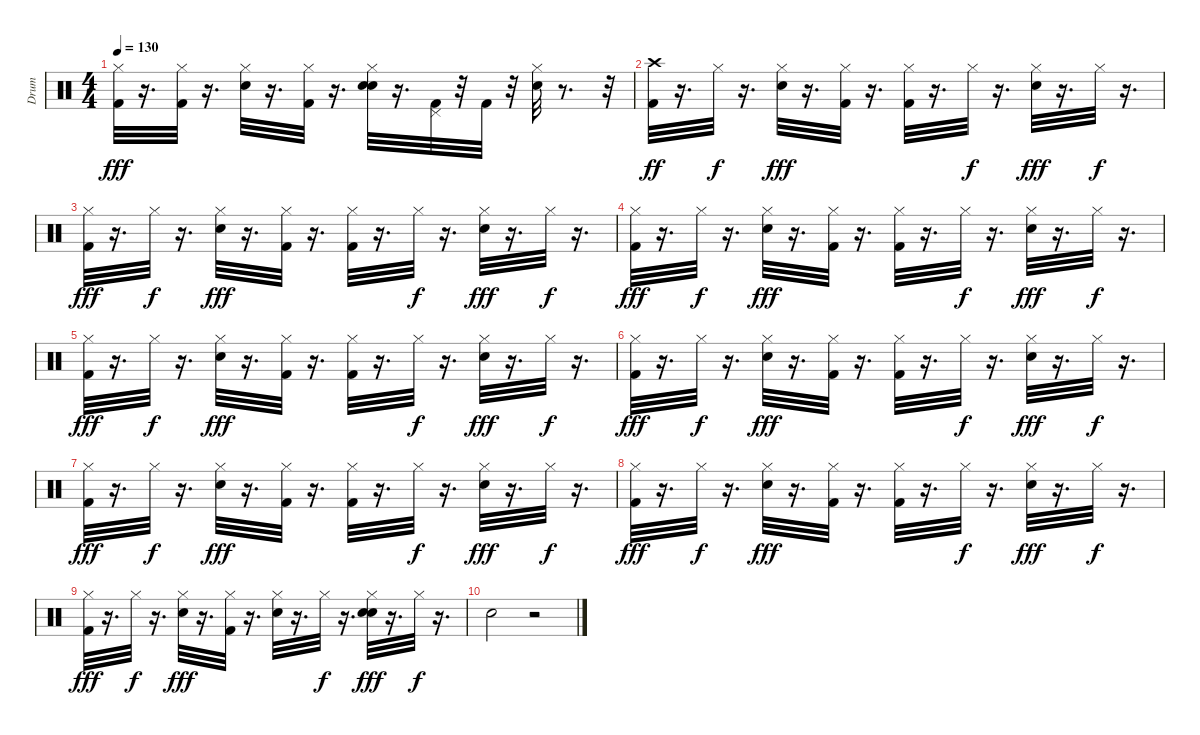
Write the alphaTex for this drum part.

\track ("Drum" "Drum") {instrument percussion}
\staff {score}
\articulation defaults
\ts (4 4)
\tempo 130
\clef neutral
\ks c
("Kick (hit) 2" "Hi-Hat (closed)").32{dy fff} r.16{d} ("Hi-Hat (closed)" "Kick (hit) 2").32 r.16{d} ("Hi-Hat (closed)" "Electric Snare (hit)").32 r.16{d} ("Kick (hit) 2" "Hi-Hat (closed)").32 r.16{d} ("Electric Snare (hit)" "Hi-Hat (closed)" "Electric Snare (hit)").32 r.16{d} ("Pedal Hi-Hat (hit)" "Kick (hit) 2").32 r.32 "Kick (hit) 2".32 r.32 ("Electric Snare (hit)" "Hi-Hat (closed)").32 r.8{d} r.32 |
("Kick (hit) 2" "Crash high (hit)").32{dy ff} r.16{d} "Hi-Hat (closed)".32{dy f} r.16{d} ("Hi-Hat (closed)" "Electric Snare (hit)").32{dy fff} r.16{d} ("Kick (hit) 2" "Hi-Hat (closed)").32 r.16{d} ("Kick (hit) 2" "Hi-Hat (closed)").32 r.16{d} "Hi-Hat (closed)".32{dy f} r.16{d} ("Hi-Hat (closed)" "Electric Snare (hit)").32{dy fff} r.16{d} "Hi-Hat (closed)".32{dy f} r.16{d} |
("Kick (hit) 2" "Hi-Hat (closed)").32{dy fff} r.16{d} "Hi-Hat (closed)".32{dy f} r.16{d} ("Hi-Hat (closed)" "Electric Snare (hit)").32{dy fff} r.16{d} ("Kick (hit) 2" "Hi-Hat (closed)").32 r.16{d} ("Kick (hit) 2" "Hi-Hat (closed)").32 r.16{d} "Hi-Hat (closed)".32{dy f} r.16{d} ("Hi-Hat (closed)" "Electric Snare (hit)").32{dy fff} r.16{d} "Hi-Hat (closed)".32{dy f} r.16{d} |
("Kick (hit) 2" "Hi-Hat (closed)").32{dy fff} r.16{d} "Hi-Hat (closed)".32{dy f} r.16{d} ("Hi-Hat (closed)" "Electric Snare (hit)").32{dy fff} r.16{d} ("Kick (hit) 2" "Hi-Hat (closed)").32 r.16{d} ("Kick (hit) 2" "Hi-Hat (closed)").32 r.16{d} "Hi-Hat (closed)".32{dy f} r.16{d} ("Hi-Hat (closed)" "Electric Snare (hit)").32{dy fff} r.16{d} "Hi-Hat (closed)".32{dy f} r.16{d} |
("Kick (hit) 2" "Hi-Hat (closed)").32{dy fff} r.16{d} "Hi-Hat (closed)".32{dy f} r.16{d} ("Hi-Hat (closed)" "Electric Snare (hit)").32{dy fff} r.16{d} ("Kick (hit) 2" "Hi-Hat (closed)").32 r.16{d} ("Kick (hit) 2" "Hi-Hat (closed)").32 r.16{d} "Hi-Hat (closed)".32{dy f} r.16{d} ("Hi-Hat (closed)" "Electric Snare (hit)").32{dy fff} r.16{d} "Hi-Hat (closed)".32{dy f} r.16{d} |
("Kick (hit) 2" "Hi-Hat (closed)").32{dy fff} r.16{d} "Hi-Hat (closed)".32{dy f} r.16{d} ("Hi-Hat (closed)" "Electric Snare (hit)").32{dy fff} r.16{d} ("Kick (hit) 2" "Hi-Hat (closed)").32 r.16{d} ("Kick (hit) 2" "Hi-Hat (closed)").32 r.16{d} "Hi-Hat (closed)".32{dy f} r.16{d} ("Hi-Hat (closed)" "Electric Snare (hit)").32{dy fff} r.16{d} "Hi-Hat (closed)".32{dy f} r.16{d} |
("Kick (hit) 2" "Hi-Hat (closed)").32{dy fff} r.16{d} "Hi-Hat (closed)".32{dy f} r.16{d} ("Hi-Hat (closed)" "Electric Snare (hit)").32{dy fff} r.16{d} ("Kick (hit) 2" "Hi-Hat (closed)").32 r.16{d} ("Kick (hit) 2" "Hi-Hat (closed)").32 r.16{d} "Hi-Hat (closed)".32{dy f} r.16{d} ("Hi-Hat (closed)" "Electric Snare (hit)").32{dy fff} r.16{d} "Hi-Hat (closed)".32{dy f} r.16{d} |
("Kick (hit) 2" "Hi-Hat (closed)").32{dy fff} r.16{d} "Hi-Hat (closed)".32{dy f} r.16{d} ("Hi-Hat (closed)" "Electric Snare (hit)").32{dy fff} r.16{d} ("Kick (hit) 2" "Hi-Hat (closed)").32 r.16{d} ("Kick (hit) 2" "Hi-Hat (closed)").32 r.16{d} "Hi-Hat (closed)".32{dy f} r.16{d} ("Hi-Hat (closed)" "Electric Snare (hit)").32{dy fff} r.16{d} "Hi-Hat (closed)".32{dy f} r.16{d} |
("Kick (hit) 2" "Hi-Hat (closed)").32{dy fff} r.16{d} "Hi-Hat (closed)".32{dy f} r.16{d} ("Hi-Hat (closed)" "Electric Snare (hit)").32{dy fff} r.16{d} ("Kick (hit) 2" "Hi-Hat (closed)").32 r.16{d} ("Electric Snare (hit)" "Hi-Hat (closed)").32 r.16{d} "Hi-Hat (closed)".32{dy f} r.16{d} ("Electric Snare (hit)" "Hi-Hat (closed)" "Electric Snare (hit)").32{dy fff} r.16{d} "Hi-Hat (closed)".32{dy f} r.16{d} |
"Electric Snare (hit)".2 r.2
